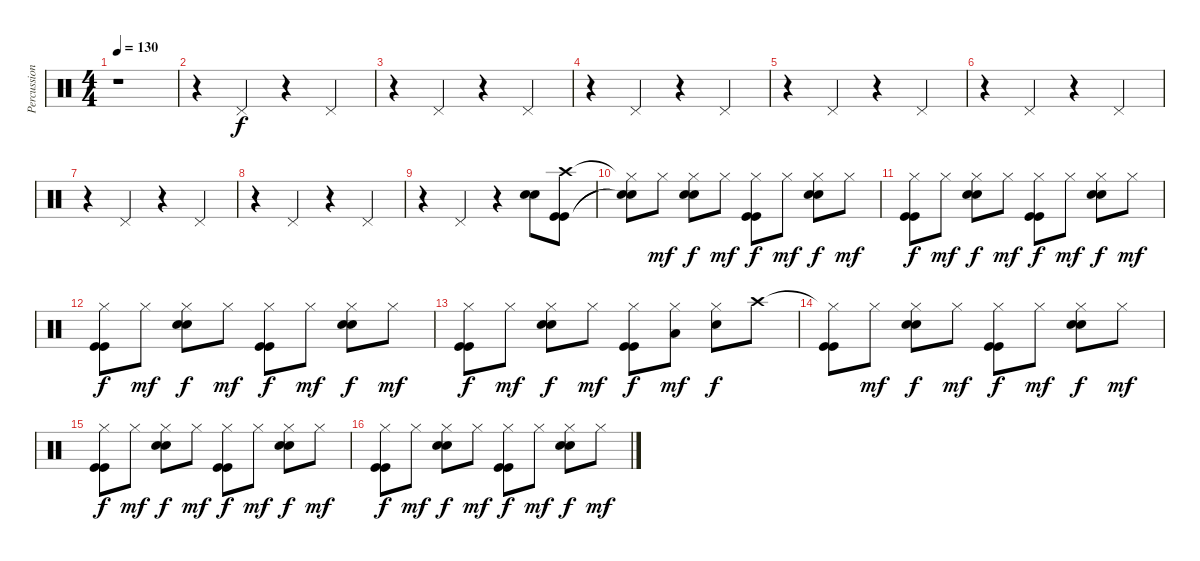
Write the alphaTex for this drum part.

\track ("Percussions" "Percussion") {instrument percussion}
\staff {score}
\articulation defaults
\ts (4 4)
\tempo 130
\clef neutral
\ks c
r.1{dy f} |
r.4 "Pedal Hi-Hat (hit)".4 r.4 "Pedal Hi-Hat (hit)".4 |
r.4 "Pedal Hi-Hat (hit)".4 r.4 "Pedal Hi-Hat (hit)".4 |
r.4 "Pedal Hi-Hat (hit)".4 r.4 "Pedal Hi-Hat (hit)".4 |
r.4 "Pedal Hi-Hat (hit)".4 r.4 "Pedal Hi-Hat (hit)".4 |
r.4 "Pedal Hi-Hat (hit)".4 r.4 "Pedal Hi-Hat (hit)".4 |
r.4 "Pedal Hi-Hat (hit)".4 r.4 "Pedal Hi-Hat (hit)".4 |
r.4 "Pedal Hi-Hat (hit)".4 r.4 "Pedal Hi-Hat (hit)".4 |
r.4 "Pedal Hi-Hat (hit)".4 r.4 ("Snare (hit) 2" "Snare (hit) 2").8 ("Crash high (hit)" "Kick (hit)" "Kick (hit)").8 |
("Hi-Hat (closed)"{t} "Snare (hit)"{t} "Snare (hit)"{t}).8 "Hi-Hat (closed)".8{dy mf} ("Hi-Hat (closed)" "Snare (hit) 2" "Snare (hit) 2").8{dy f} "Hi-Hat (closed)".8{dy mf} ("Hi-Hat (closed)" "Kick (hit)" "Kick (hit)").8{dy f} "Hi-Hat (closed)".8{dy mf} ("Hi-Hat (closed)" "Snare (hit) 2" "Snare (hit) 2").8{dy f} "Hi-Hat (closed)".8{dy mf} |
("Hi-Hat (closed)" "Kick (hit)" "Kick (hit)").8{dy f} "Hi-Hat (closed)".8{dy mf} ("Hi-Hat (closed)" "Snare (hit) 2" "Snare (hit) 2").8{dy f} "Hi-Hat (closed)".8{dy mf} ("Hi-Hat (closed)" "Kick (hit)" "Kick (hit)").8{dy f} "Hi-Hat (closed)".8{dy mf} ("Hi-Hat (closed)" "Snare (hit) 2" "Snare (hit) 2").8{dy f} "Hi-Hat (closed)".8{dy mf} |
("Hi-Hat (closed)" "Kick (hit)" "Kick (hit)").8{dy f} "Hi-Hat (closed)".8{dy mf} ("Hi-Hat (closed)" "Snare (hit) 2" "Snare (hit) 2").8{dy f} "Hi-Hat (closed)".8{dy mf} ("Hi-Hat (closed)" "Kick (hit)" "Kick (hit)").8{dy f} "Hi-Hat (closed)".8{dy mf} ("Hi-Hat (closed)" "Snare (hit) 2" "Snare (hit) 2").8{dy f} "Hi-Hat (closed)".8{dy mf} |
("Hi-Hat (closed)" "Kick (hit)" "Kick (hit)").8{dy f} "Hi-Hat (closed)".8{dy mf} ("Hi-Hat (closed)" "Snare (hit) 2" "Snare (hit) 2").8{dy f} "Hi-Hat (closed)".8{dy mf} ("Hi-Hat (closed)" "Kick (hit)" "Kick (hit)").8{dy f} ("Hi-Hat (closed)" "Low Tom (hit)").8{dy mf} ("Hi-Hat (closed)" "Snare (hit) 2").8{dy f} "Crash high (hit)".8 |
("Hi-Hat (closed)"{t} "Kick (hit)" "Kick (hit)").8 "Hi-Hat (closed)".8{dy mf} ("Hi-Hat (closed)" "Snare (hit) 2" "Snare (hit) 2").8{dy f} "Hi-Hat (closed)".8{dy mf} ("Hi-Hat (closed)" "Kick (hit)" "Kick (hit)").8{dy f} "Hi-Hat (closed)".8{dy mf} ("Hi-Hat (closed)" "Snare (hit) 2" "Snare (hit) 2").8{dy f} "Hi-Hat (closed)".8{dy mf} |
("Hi-Hat (closed)" "Kick (hit)" "Kick (hit)").8{dy f} "Hi-Hat (closed)".8{dy mf} ("Hi-Hat (closed)" "Snare (hit) 2" "Snare (hit) 2").8{dy f} "Hi-Hat (closed)".8{dy mf} ("Hi-Hat (closed)" "Kick (hit)" "Kick (hit)").8{dy f} "Hi-Hat (closed)".8{dy mf} ("Hi-Hat (closed)" "Snare (hit) 2" "Snare (hit) 2").8{dy f} "Hi-Hat (closed)".8{dy mf} |
("Hi-Hat (closed)" "Kick (hit)" "Kick (hit)").8{dy f} "Hi-Hat (closed)".8{dy mf} ("Hi-Hat (closed)" "Snare (hit) 2" "Snare (hit) 2").8{dy f} "Hi-Hat (closed)".8{dy mf} ("Hi-Hat (closed)" "Kick (hit)" "Kick (hit)").8{dy f} "Hi-Hat (closed)".8{dy mf} ("Hi-Hat (closed)" "Snare (hit) 2" "Snare (hit) 2").8{dy f} "Hi-Hat (closed)".8{dy mf}
